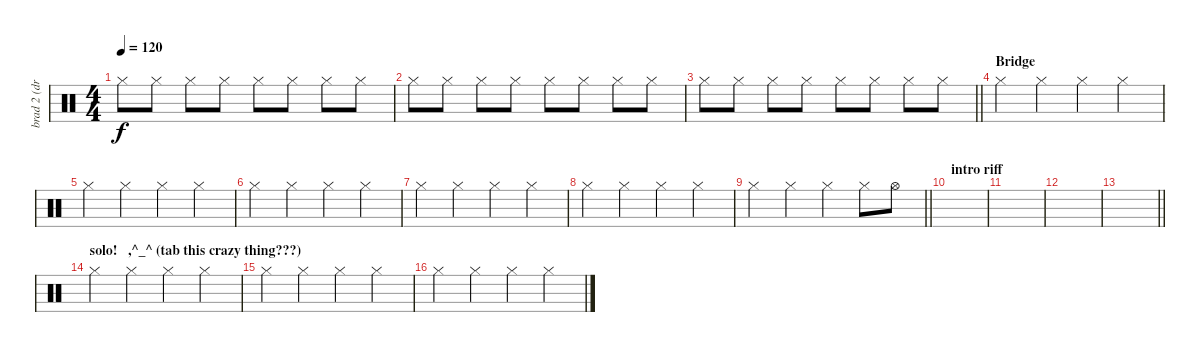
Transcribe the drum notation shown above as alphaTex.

\track ("brad 2 (drums hit hat)" "brad 2 (dr") {instrument percussion}
\staff {score}
\articulation defaults
\ts (4 4)
\tempo 120
\clef neutral
\ks c "Hi-Hat (closed)".8{dy f} "Hi-Hat (closed)".8 "Hi-Hat (closed)".8 "Hi-Hat (closed)".8 "Hi-Hat (closed)".8 "Hi-Hat (closed)".8 "Hi-Hat (closed)".8 "Hi-Hat (closed)".8
|
"Hi-Hat (closed)".8 "Hi-Hat (closed)".8 "Hi-Hat (closed)".8 "Hi-Hat (closed)".8 "Hi-Hat (closed)".8 "Hi-Hat (closed)".8 "Hi-Hat (closed)".8 "Hi-Hat (closed)".8 |
\barLineRight lightlight "Hi-Hat (closed)".8 "Hi-Hat (closed)".8 "Hi-Hat (closed)".8 "Hi-Hat (closed)".8 "Hi-Hat (closed)".8 "Hi-Hat (closed)".8 "Hi-Hat (closed)".8 "Hi-Hat (closed)".8
|
\section ("" "Bridge")
"Hi-Hat (closed)".4 "Hi-Hat (closed)".4 "Hi-Hat (closed)".4 "Hi-Hat (closed)".4 |
"Hi-Hat (closed)".4 "Hi-Hat (closed)".4 "Hi-Hat (closed)".4 "Hi-Hat (closed)".4 |
"Hi-Hat (closed)".4 "Hi-Hat (closed)".4 "Hi-Hat (closed)".4 "Hi-Hat (closed)".4 |
"Hi-Hat (closed)".4 "Hi-Hat (closed)".4 "Hi-Hat (closed)".4 "Hi-Hat (closed)".4 |
"Hi-Hat (closed)".4 "Hi-Hat (closed)".4 "Hi-Hat (closed)".4 "Hi-Hat (closed)".4 |
\barLineRight lightlight "Hi-Hat (closed)".4 "Hi-Hat (closed)".4 "Hi-Hat (closed)".4 "Hi-Hat (closed)".8 "Hi-Hat (open)".8
|
\section ("" "intro riff")
|
|
|
\barLineRight lightlight
|
\section ("" "solo!   ,^_^ (tab this crazy thing???)")
"Hi-Hat (closed)".4 "Hi-Hat (closed)".4 "Hi-Hat (closed)".4 "Hi-Hat (closed)".4 |
"Hi-Hat (closed)".4 "Hi-Hat (closed)".4 "Hi-Hat (closed)".4 "Hi-Hat (closed)".4 |
"Hi-Hat (closed)".4 "Hi-Hat (closed)".4 "Hi-Hat (closed)".4 "Hi-Hat (closed)".4
